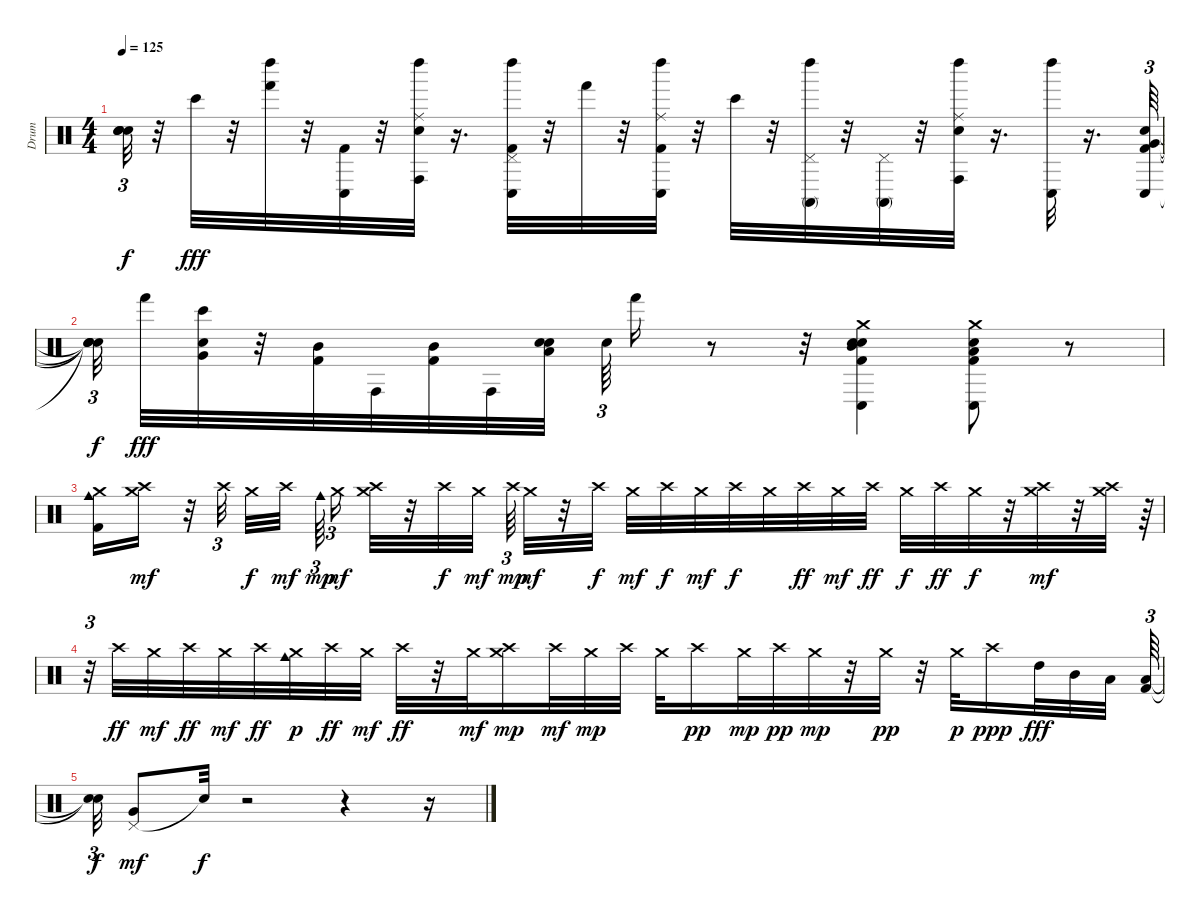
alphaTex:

\track ("Drum" "Drum") {instrument percussion}
\staff {score}
\articulation defaults
\ts (4 4)
\tempo 125
\clef neutral
\ks c
("Snare (hit)"{t} "Snare (hit)"{t} "Snare (hit)"{t} "Snare (hit)"{t}).32{tu (3 2) dy f} r.32 "Bongo High (hit)".32{dy fff} r.32 ("Hand (hit)" "Left Maraca (hit)").32 r.32 ("Kick (hit) 2" "Conga low (hit)").32 r.32 ("Conga high (hit)" "Left Maraca (hit)" "Electric Snare (hit)" "Ride (middle)").32 r.16{d} ("Kick (hit) 2" "Pedal Hi-Hat (hit)" "Conga low (hit)" "Left Maraca (hit)").32 r.32 "Hand (hit)".32 r.32 ("Kick (hit) 2" "Conga low (hit)" "Left Maraca (hit)" "Ride (middle)").32 r.32 "Bongo High (hit)".32 r.32 ("Pedal Hi-Hat (hit)" "Conga high (mute)" "Left Maraca (hit)").32 r.32 ("Pedal Hi-Hat (hit)" "Conga high (mute)").32 r.32 ("Conga high (hit)" "Left Maraca (hit)" "Electric Snare (hit)" "Ride (middle)").32 r.16{d} ("Conga low (hit)" "Left Maraca (hit)").32 r.16{d} ("Kick (hit) 2" "Conga low (hit)" "Very Low Tom (hit)" "Electric Snare (hit)").64{tu (3 2)} |
("Snare (hit)"{t} "Snare (hit)"{t} "Snare (hit)"{t} "Snare (hit)"{t}).32{tu (3 2) dy f beam splitsecondary} "Hand (hit)".32{dy fff} ("Bongo High (hit)" "Very Low Tom (hit)" "Electric Snare (hit)").32 r.32 ("Kick (hit) 2" "Mid Tom (hit)").32 "Conga high (hit)".32 ("Kick (hit) 2" "Mid Tom (hit)").32 "Conga high (hit)".32 ("Electric Snare (hit)" "Low Tom (hit)" "Electric Snare (hit)").32 "Electric Snare (hit)".64{tu (3 2)} "Hand (hit)".16 r.8 r.32 ("Crash medium (hit)" "Electric Snare (hit)" "Mid Tom (hit)" "Kick (hit) 2" "Conga low (hit)" "Electric Snare (hit)").4 ("Kick (hit) 2" "Conga low (hit)" "Electric Snare (hit)" "Crash medium (hit)" "Low Tom (hit)").8 r.8 |
("Kick (hit) 2" "Cowbell medium (hit)" "Crash medium (hit)").16 ("Crash high (hit)" "Crash medium (hit)").16{dy mf} r.32 "Crash high (hit)".32{tu (3 2) beam splitsecondary} "Crash medium (hit)".32{dy f} "Crash high (hit)".32{dy mf beam splitsecondary} "Cowbell medium (hit)".64{tu (3 2) dy mp} "Crash medium (hit)".16{tu (3 2) dy mf} ("Crash high (hit)" "Crash medium (hit)").32 r.32 "Crash high (hit)".32{dy f} "Crash medium (hit)".32{dy mf beam splitsecondary} "Crash high (hit)".64{tu (3 2) dy mp} "Crash medium (hit)".32{dy mf} r.32 "Crash high (hit)".32{dy f} "Crash medium (hit)".32{dy mf} "Crash high (hit)".32{dy f} "Crash medium (hit)".32{dy mf} "Crash high (hit)".32{dy f} "Crash medium (hit)".32 "Crash high (hit)".32{dy ff} "Crash medium (hit)".32{dy mf} "Crash high (hit)".32{dy ff} "Crash medium (hit)".32{dy f} "Crash high (hit)".32{dy ff} "Crash medium (hit)".32{dy f} r.32 ("Crash high (hit)" "Crash medium (hit)").32{dy mf} r.32 ("Crash high (hit)" "Crash medium (hit)").32 r.64{tu (3 2)} |
r.32{tu (3 2)} "Crash high (hit)".32{dy ff} "Crash medium (hit)".32{dy mf} "Crash high (hit)".32{dy ff} "Crash medium (hit)".32{dy mf} "Crash high (hit)".32{dy ff} ("Crash medium (hit)" "Cowbell medium (hit)").32{dy p} "Crash high (hit)".32{dy ff} "Crash medium (hit)".32{dy mf} "Crash high (hit)".32{dy ff} r.32 "Crash medium (hit)".32{dy mf} ("Crash high (hit)" "Crash medium (hit)").16{dy mp} "Crash high (hit)".32{dy mf} "Crash medium (hit)".32{dy mp} "Crash high (hit)".32 "Crash medium (hit)".32 "Crash high (hit)".16{dy pp} "Crash medium (hit)".32{dy mp} "Crash high (hit)".32{dy pp} "Crash medium (hit)".32{dy mp} r.32 "Crash medium (hit)".32{dy pp} r.32 "Crash medium (hit)".32{dy p} "Crash high (hit)".16{dy ppp} "High Tom (hit)".32{dy fff} "Mid Tom (hit)".32 "Low Tom (hit)".32{beam splitsecondary} ("Low Floor Tom (hit)" "Kick (hit) 2").64{tu (3 2)} |
("Snare (hit)"{t} "Snare (hit)"{t}).32{tu (3 2) dy f} ("Pedal Hi-Hat (hit)" "Very Low Tom (hit)").8{dy mf} "Snare (hit)"{t}.32{dy f} r.2 r.4 r.16
